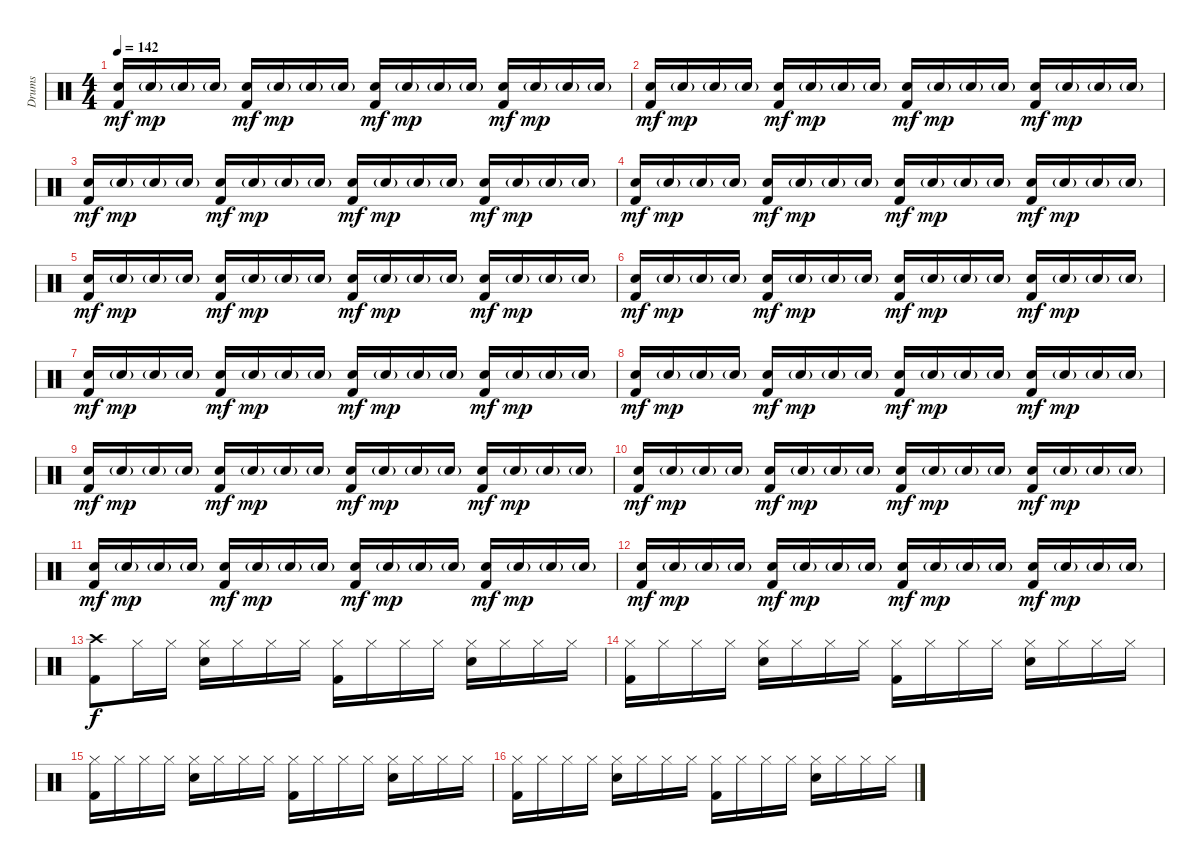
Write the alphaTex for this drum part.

\track ("Drums" "Drums") {instrument percussion}
\staff {score}
\articulation defaults
\ts (4 4)
\tempo 142
\clef neutral
\ks c
("Electric Snare (hit)" "Kick (hit) 2").16{dy mf} "Electric Snare (hit)"{g}.16{dy mp} "Electric Snare (hit)"{g}.16 "Electric Snare (hit)"{g}.16 ("Electric Snare (hit)" "Kick (hit) 2").16{dy mf} "Electric Snare (hit)"{g}.16{dy mp} "Electric Snare (hit)"{g}.16 "Electric Snare (hit)"{g}.16 ("Electric Snare (hit)" "Kick (hit) 2").16{dy mf} "Electric Snare (hit)"{g}.16{dy mp} "Electric Snare (hit)"{g}.16 "Electric Snare (hit)"{g}.16 ("Electric Snare (hit)" "Kick (hit) 2").16{dy mf} "Electric Snare (hit)"{g}.16{dy mp} "Electric Snare (hit)"{g}.16 "Electric Snare (hit)"{g}.16 |
("Electric Snare (hit)" "Kick (hit) 2").16{dy mf} "Electric Snare (hit)"{g}.16{dy mp} "Electric Snare (hit)"{g}.16 "Electric Snare (hit)"{g}.16 ("Electric Snare (hit)" "Kick (hit) 2").16{dy mf} "Electric Snare (hit)"{g}.16{dy mp} "Electric Snare (hit)"{g}.16 "Electric Snare (hit)"{g}.16 ("Electric Snare (hit)" "Kick (hit) 2").16{dy mf} "Electric Snare (hit)"{g}.16{dy mp} "Electric Snare (hit)"{g}.16 "Electric Snare (hit)"{g}.16 ("Electric Snare (hit)" "Kick (hit) 2").16{dy mf} "Electric Snare (hit)"{g}.16{dy mp} "Electric Snare (hit)"{g}.16 "Electric Snare (hit)"{g}.16 |
("Electric Snare (hit)" "Kick (hit) 2").16{dy mf} "Electric Snare (hit)"{g}.16{dy mp} "Electric Snare (hit)"{g}.16 "Electric Snare (hit)"{g}.16 ("Electric Snare (hit)" "Kick (hit) 2").16{dy mf} "Electric Snare (hit)"{g}.16{dy mp} "Electric Snare (hit)"{g}.16 "Electric Snare (hit)"{g}.16 ("Electric Snare (hit)" "Kick (hit) 2").16{dy mf} "Electric Snare (hit)"{g}.16{dy mp} "Electric Snare (hit)"{g}.16 "Electric Snare (hit)"{g}.16 ("Electric Snare (hit)" "Kick (hit) 2").16{dy mf} "Electric Snare (hit)"{g}.16{dy mp} "Electric Snare (hit)"{g}.16 "Electric Snare (hit)"{g}.16 |
("Electric Snare (hit)" "Kick (hit) 2").16{dy mf} "Electric Snare (hit)"{g}.16{dy mp} "Electric Snare (hit)"{g}.16 "Electric Snare (hit)"{g}.16 ("Electric Snare (hit)" "Kick (hit) 2").16{dy mf} "Electric Snare (hit)"{g}.16{dy mp} "Electric Snare (hit)"{g}.16 "Electric Snare (hit)"{g}.16 ("Electric Snare (hit)" "Kick (hit) 2").16{dy mf} "Electric Snare (hit)"{g}.16{dy mp} "Electric Snare (hit)"{g}.16 "Electric Snare (hit)"{g}.16 ("Electric Snare (hit)" "Kick (hit) 2").16{dy mf} "Electric Snare (hit)"{g}.16{dy mp} "Electric Snare (hit)"{g}.16 "Electric Snare (hit)"{g}.16 |
("Electric Snare (hit)" "Kick (hit) 2").16{dy mf} "Electric Snare (hit)"{g}.16{dy mp} "Electric Snare (hit)"{g}.16 "Electric Snare (hit)"{g}.16 ("Electric Snare (hit)" "Kick (hit) 2").16{dy mf} "Electric Snare (hit)"{g}.16{dy mp} "Electric Snare (hit)"{g}.16 "Electric Snare (hit)"{g}.16 ("Electric Snare (hit)" "Kick (hit) 2").16{dy mf} "Electric Snare (hit)"{g}.16{dy mp} "Electric Snare (hit)"{g}.16 "Electric Snare (hit)"{g}.16 ("Electric Snare (hit)" "Kick (hit) 2").16{dy mf} "Electric Snare (hit)"{g}.16{dy mp} "Electric Snare (hit)"{g}.16 "Electric Snare (hit)"{g}.16 |
("Electric Snare (hit)" "Kick (hit) 2").16{dy mf} "Electric Snare (hit)"{g}.16{dy mp} "Electric Snare (hit)"{g}.16 "Electric Snare (hit)"{g}.16 ("Electric Snare (hit)" "Kick (hit) 2").16{dy mf} "Electric Snare (hit)"{g}.16{dy mp} "Electric Snare (hit)"{g}.16 "Electric Snare (hit)"{g}.16 ("Electric Snare (hit)" "Kick (hit) 2").16{dy mf} "Electric Snare (hit)"{g}.16{dy mp} "Electric Snare (hit)"{g}.16 "Electric Snare (hit)"{g}.16 ("Electric Snare (hit)" "Kick (hit) 2").16{dy mf} "Electric Snare (hit)"{g}.16{dy mp} "Electric Snare (hit)"{g}.16 "Electric Snare (hit)"{g}.16 |
("Electric Snare (hit)" "Kick (hit) 2").16{dy mf} "Electric Snare (hit)"{g}.16{dy mp} "Electric Snare (hit)"{g}.16 "Electric Snare (hit)"{g}.16 ("Electric Snare (hit)" "Kick (hit) 2").16{dy mf} "Electric Snare (hit)"{g}.16{dy mp} "Electric Snare (hit)"{g}.16 "Electric Snare (hit)"{g}.16 ("Electric Snare (hit)" "Kick (hit) 2").16{dy mf} "Electric Snare (hit)"{g}.16{dy mp} "Electric Snare (hit)"{g}.16 "Electric Snare (hit)"{g}.16 ("Electric Snare (hit)" "Kick (hit) 2").16{dy mf} "Electric Snare (hit)"{g}.16{dy mp} "Electric Snare (hit)"{g}.16 "Electric Snare (hit)"{g}.16 |
("Electric Snare (hit)" "Kick (hit) 2").16{dy mf} "Electric Snare (hit)"{g}.16{dy mp} "Electric Snare (hit)"{g}.16 "Electric Snare (hit)"{g}.16 ("Electric Snare (hit)" "Kick (hit) 2").16{dy mf} "Electric Snare (hit)"{g}.16{dy mp} "Electric Snare (hit)"{g}.16 "Electric Snare (hit)"{g}.16 ("Electric Snare (hit)" "Kick (hit) 2").16{dy mf} "Electric Snare (hit)"{g}.16{dy mp} "Electric Snare (hit)"{g}.16 "Electric Snare (hit)"{g}.16 ("Electric Snare (hit)" "Kick (hit) 2").16{dy mf} "Electric Snare (hit)"{g}.16{dy mp} "Electric Snare (hit)"{g}.16 "Electric Snare (hit)"{g}.16 |
("Electric Snare (hit)" "Kick (hit) 2").16{dy mf} "Electric Snare (hit)"{g}.16{dy mp} "Electric Snare (hit)"{g}.16 "Electric Snare (hit)"{g}.16 ("Electric Snare (hit)" "Kick (hit) 2").16{dy mf} "Electric Snare (hit)"{g}.16{dy mp} "Electric Snare (hit)"{g}.16 "Electric Snare (hit)"{g}.16 ("Electric Snare (hit)" "Kick (hit) 2").16{dy mf} "Electric Snare (hit)"{g}.16{dy mp} "Electric Snare (hit)"{g}.16 "Electric Snare (hit)"{g}.16 ("Electric Snare (hit)" "Kick (hit) 2").16{dy mf} "Electric Snare (hit)"{g}.16{dy mp} "Electric Snare (hit)"{g}.16 "Electric Snare (hit)"{g}.16 |
("Electric Snare (hit)" "Kick (hit) 2").16{dy mf} "Electric Snare (hit)"{g}.16{dy mp} "Electric Snare (hit)"{g}.16 "Electric Snare (hit)"{g}.16 ("Electric Snare (hit)" "Kick (hit) 2").16{dy mf} "Electric Snare (hit)"{g}.16{dy mp} "Electric Snare (hit)"{g}.16 "Electric Snare (hit)"{g}.16 ("Electric Snare (hit)" "Kick (hit) 2").16{dy mf} "Electric Snare (hit)"{g}.16{dy mp} "Electric Snare (hit)"{g}.16 "Electric Snare (hit)"{g}.16 ("Electric Snare (hit)" "Kick (hit) 2").16{dy mf} "Electric Snare (hit)"{g}.16{dy mp} "Electric Snare (hit)"{g}.16 "Electric Snare (hit)"{g}.16 |
("Electric Snare (hit)" "Kick (hit) 2").16{dy mf} "Electric Snare (hit)"{g}.16{dy mp} "Electric Snare (hit)"{g}.16 "Electric Snare (hit)"{g}.16 ("Electric Snare (hit)" "Kick (hit) 2").16{dy mf} "Electric Snare (hit)"{g}.16{dy mp} "Electric Snare (hit)"{g}.16 "Electric Snare (hit)"{g}.16 ("Electric Snare (hit)" "Kick (hit) 2").16{dy mf} "Electric Snare (hit)"{g}.16{dy mp} "Electric Snare (hit)"{g}.16 "Electric Snare (hit)"{g}.16 ("Electric Snare (hit)" "Kick (hit) 2").16{dy mf} "Electric Snare (hit)"{g}.16{dy mp} "Electric Snare (hit)"{g}.16 "Electric Snare (hit)"{g}.16 |
("Electric Snare (hit)" "Kick (hit) 2").16{dy mf} "Electric Snare (hit)"{g}.16{dy mp} "Electric Snare (hit)"{g}.16 "Electric Snare (hit)"{g}.16 ("Electric Snare (hit)" "Kick (hit) 2").16{dy mf} "Electric Snare (hit)"{g}.16{dy mp} "Electric Snare (hit)"{g}.16 "Electric Snare (hit)"{g}.16 ("Electric Snare (hit)" "Kick (hit) 2").16{dy mf} "Electric Snare (hit)"{g}.16{dy mp} "Electric Snare (hit)"{g}.16 "Electric Snare (hit)"{g}.16 ("Electric Snare (hit)" "Kick (hit) 2").16{dy mf} "Electric Snare (hit)"{g}.16{dy mp} "Electric Snare (hit)"{g}.16 "Electric Snare (hit)"{g}.16 |
("Crash high (hit)" "Kick (hit) 2").8{dy f} "Hi-Hat (closed)".16 "Hi-Hat (closed)".16 ("Hi-Hat (closed)" "Electric Snare (hit)").16 "Hi-Hat (closed)".16 "Hi-Hat (closed)".16 "Hi-Hat (closed)".16 ("Hi-Hat (closed)" "Kick (hit) 2").16 "Hi-Hat (closed)".16 "Hi-Hat (closed)".16 "Hi-Hat (closed)".16 ("Hi-Hat (closed)" "Electric Snare (hit)").16 "Hi-Hat (closed)".16 "Hi-Hat (closed)".16 "Hi-Hat (closed)".16 |
("Hi-Hat (closed)" "Kick (hit) 2").16 "Hi-Hat (closed)".16 "Hi-Hat (closed)".16 "Hi-Hat (closed)".16 ("Hi-Hat (closed)" "Electric Snare (hit)").16 "Hi-Hat (closed)".16 "Hi-Hat (closed)".16 "Hi-Hat (closed)".16 ("Hi-Hat (closed)" "Kick (hit) 2").16 "Hi-Hat (closed)".16 "Hi-Hat (closed)".16 "Hi-Hat (closed)".16 ("Hi-Hat (closed)" "Electric Snare (hit)").16 "Hi-Hat (closed)".16 "Hi-Hat (closed)".16 "Hi-Hat (closed)".16 |
("Hi-Hat (closed)" "Kick (hit) 2").16 "Hi-Hat (closed)".16 "Hi-Hat (closed)".16 "Hi-Hat (closed)".16 ("Hi-Hat (closed)" "Electric Snare (hit)").16 "Hi-Hat (closed)".16 "Hi-Hat (closed)".16 "Hi-Hat (closed)".16 ("Hi-Hat (closed)" "Kick (hit) 2").16 "Hi-Hat (closed)".16 "Hi-Hat (closed)".16 "Hi-Hat (closed)".16 ("Hi-Hat (closed)" "Electric Snare (hit)").16 "Hi-Hat (closed)".16 "Hi-Hat (closed)".16 "Hi-Hat (closed)".16 |
("Hi-Hat (closed)" "Kick (hit) 2").16 "Hi-Hat (closed)".16 "Hi-Hat (closed)".16 "Hi-Hat (closed)".16 ("Hi-Hat (closed)" "Electric Snare (hit)").16 "Hi-Hat (closed)".16 "Hi-Hat (closed)".16 "Hi-Hat (closed)".16 ("Hi-Hat (closed)" "Kick (hit) 2").16 "Hi-Hat (closed)".16 "Hi-Hat (closed)".16 "Hi-Hat (closed)".16 ("Hi-Hat (closed)" "Electric Snare (hit)").16 "Hi-Hat (closed)".16 "Hi-Hat (closed)".16 "Hi-Hat (closed)".16
